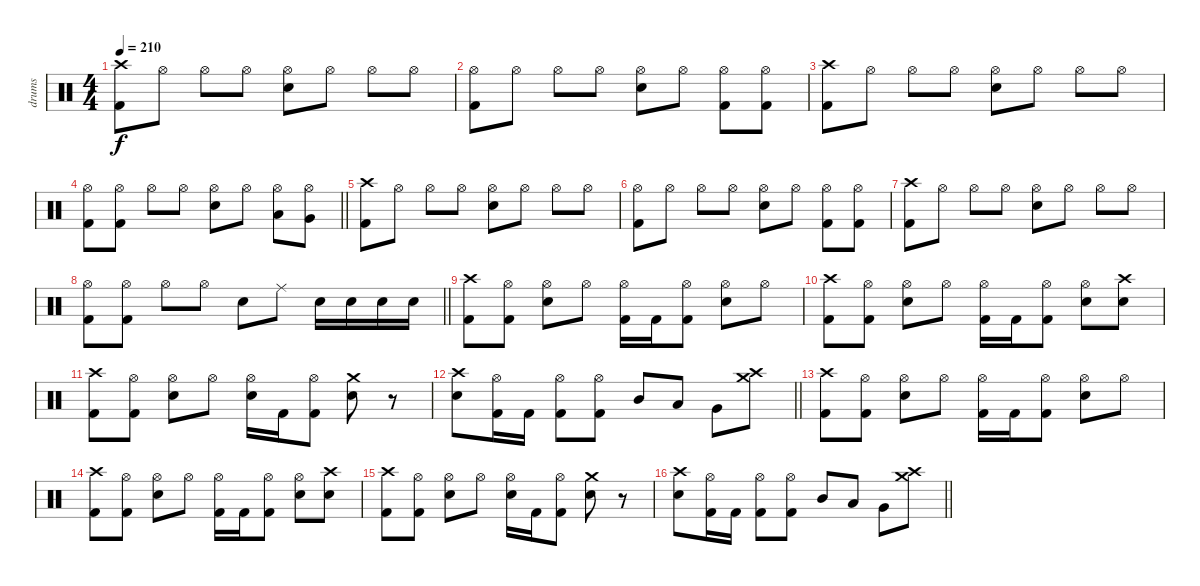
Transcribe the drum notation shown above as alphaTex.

\track ("drums" "drums") {instrument percussion}
\staff {score}
\articulation defaults
\ts (4 4)
\section ("" "")
\tempo 210
\clef neutral
\ks c
("Crash high (hit)" "Kick (hit) 2").8{dy f} "Hi-Hat (open)".8 "Hi-Hat (open)".8 "Hi-Hat (open)".8 ("Hi-Hat (open)" "Electric Snare (hit)").8 "Hi-Hat (open)".8 "Hi-Hat (open)".8 "Hi-Hat (open)".8 |
("Hi-Hat (open)" "Kick (hit) 2").8 "Hi-Hat (open)".8 "Hi-Hat (open)".8 "Hi-Hat (open)".8 ("Hi-Hat (open)" "Electric Snare (hit)").8 "Hi-Hat (open)".8 ("Hi-Hat (open)" "Kick (hit) 2").8 ("Hi-Hat (open)" "Kick (hit) 2").8 |
("Crash high (hit)" "Kick (hit) 2").8 "Hi-Hat (open)".8 "Hi-Hat (open)".8 "Hi-Hat (open)".8 ("Hi-Hat (open)" "Electric Snare (hit)").8 "Hi-Hat (open)".8 "Hi-Hat (open)".8 "Hi-Hat (open)".8 |
\barLineRight lightlight
("Hi-Hat (open)" "Kick (hit) 2").8 ("Hi-Hat (open)" "Kick (hit) 2").8 "Hi-Hat (open)".8 "Hi-Hat (open)".8 ("Hi-Hat (open)" "Electric Snare (hit)").8 "Hi-Hat (open)".8 ("Hi-Hat (open)" "Low Tom (hit)").8 ("Hi-Hat (open)" "Very Low Tom (hit)").8 |
("Crash high (hit)" "Kick (hit) 2").8 "Hi-Hat (open)".8 "Hi-Hat (open)".8 "Hi-Hat (open)".8 ("Hi-Hat (open)" "Electric Snare (hit)").8 "Hi-Hat (open)".8 "Hi-Hat (open)".8 "Hi-Hat (open)".8 |
("Hi-Hat (open)" "Kick (hit) 2").8 "Hi-Hat (open)".8 "Hi-Hat (open)".8 "Hi-Hat (open)".8 ("Hi-Hat (open)" "Electric Snare (hit)").8 "Hi-Hat (open)".8 ("Hi-Hat (open)" "Kick (hit) 2").8 ("Hi-Hat (open)" "Kick (hit) 2").8 |
("Crash high (hit)" "Kick (hit) 2").8 "Hi-Hat (open)".8 "Hi-Hat (open)".8 "Hi-Hat (open)".8 ("Hi-Hat (open)" "Electric Snare (hit)").8 "Hi-Hat (open)".8 "Hi-Hat (open)".8 "Hi-Hat (open)".8 |
\barLineRight lightlight
("Hi-Hat (open)" "Kick (hit) 2").8 ("Hi-Hat (open)" "Kick (hit) 2").8 "Hi-Hat (open)".8 "Hi-Hat (open)".8 "Electric Snare (hit)".8 "Ride (middle)".8 "Electric Snare (hit)".16 "Electric Snare (hit)".16 "Electric Snare (hit)".16 "Electric Snare (hit)".16 |
\section ("" "")
("Crash high (hit)" "Kick (hit) 2").8 ("Hi-Hat (open)" "Kick (hit) 2").8 ("Hi-Hat (open)" "Electric Snare (hit)").8 "Hi-Hat (open)".8 ("Hi-Hat (open)" "Kick (hit) 2").16 "Kick (hit) 2".16 ("Hi-Hat (open)" "Kick (hit) 2").8 ("Hi-Hat (open)" "Electric Snare (hit)").8 "Hi-Hat (open)".8 |
("Crash high (hit)" "Kick (hit) 2").8 ("Hi-Hat (open)" "Kick (hit) 2").8 ("Hi-Hat (open)" "Electric Snare (hit)").8 "Hi-Hat (open)".8 ("Hi-Hat (open)" "Kick (hit) 2").16 "Kick (hit) 2".16 ("Hi-Hat (open)" "Kick (hit) 2").8 ("Hi-Hat (open)" "Electric Snare (hit)").8 ("Crash high (hit)" "Electric Snare (hit)").8 |
("Crash high (hit)" "Kick (hit) 2").8 ("Hi-Hat (open)" "Kick (hit) 2").8 ("Hi-Hat (open)" "Electric Snare (hit)").8 "Hi-Hat (open)".8 ("Hi-Hat (open)" "Electric Snare (hit)").16 "Kick (hit) 2".16 ("Hi-Hat (open)" "Kick (hit) 2").8 ("Crash medium (hit)" "Electric Snare (hit)").8 r.8 |
\barLineRight lightlight
("Crash high (hit)" "Electric Snare (hit)").8 ("Hi-Hat (open)" "Kick (hit) 2").16 "Kick (hit) 2".16 ("Hi-Hat (open)" "Kick (hit) 2").8 ("Hi-Hat (open)" "Kick (hit) 2").8 "Mid Tom (hit)".8 "Low Tom (hit)".8 "Very Low Tom (hit)".8 ("Crash high (hit)" "Crash medium (hit)").8 |
("Crash high (hit)" "Kick (hit) 2").8 ("Hi-Hat (open)" "Kick (hit) 2").8 ("Hi-Hat (open)" "Electric Snare (hit)").8 "Hi-Hat (open)".8 ("Hi-Hat (open)" "Kick (hit) 2").16 "Kick (hit) 2".16 ("Hi-Hat (open)" "Kick (hit) 2").8 ("Hi-Hat (open)" "Electric Snare (hit)").8 "Hi-Hat (open)".8 |
("Crash high (hit)" "Kick (hit) 2").8 ("Hi-Hat (open)" "Kick (hit) 2").8 ("Hi-Hat (open)" "Electric Snare (hit)").8 "Hi-Hat (open)".8 ("Hi-Hat (open)" "Kick (hit) 2").16 "Kick (hit) 2".16 ("Hi-Hat (open)" "Kick (hit) 2").8 ("Hi-Hat (open)" "Electric Snare (hit)").8 ("Crash high (hit)" "Electric Snare (hit)").8 |
("Crash high (hit)" "Kick (hit) 2").8 ("Hi-Hat (open)" "Kick (hit) 2").8 ("Hi-Hat (open)" "Electric Snare (hit)").8 "Hi-Hat (open)".8 ("Hi-Hat (open)" "Electric Snare (hit)").16 "Kick (hit) 2".16 ("Hi-Hat (open)" "Kick (hit) 2").8 ("Crash medium (hit)" "Electric Snare (hit)").8 r.8 |
\barLineRight lightlight
("Crash high (hit)" "Electric Snare (hit)").8 ("Hi-Hat (open)" "Kick (hit) 2").16 "Kick (hit) 2".16 ("Hi-Hat (open)" "Kick (hit) 2").8 ("Hi-Hat (open)" "Kick (hit) 2").8 "Mid Tom (hit)".8 "Low Tom (hit)".8 "Very Low Tom (hit)".8 ("Crash high (hit)" "Crash medium (hit)").8
